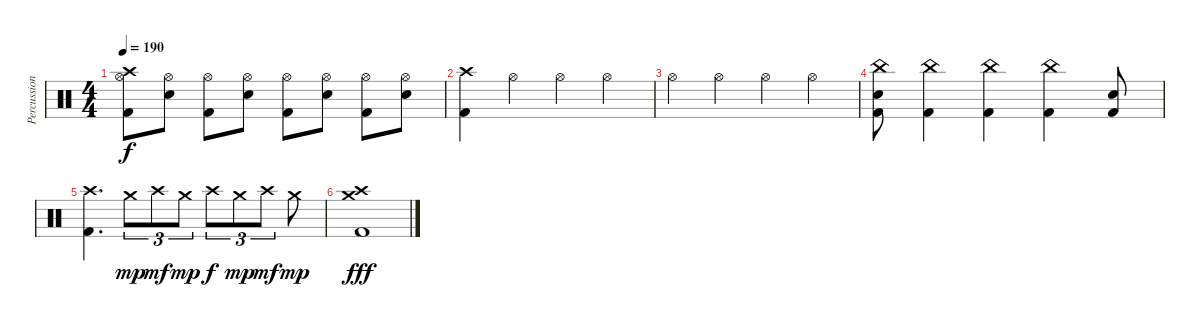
\track ("Percussion" "Percussion") {instrument percussion}
\staff {score}
\articulation defaults
\ts (4 4)
\tempo 190
\clef neutral
\ks c
("Crash high (hit)" "Hi-Hat (open)" "Kick (hit) 2").8{dy f} ("Hi-Hat (open)" "Snare (hit) 2").8 ("Hi-Hat (open)" "Kick (hit) 2").8 ("Hi-Hat (open)" "Snare (hit) 2").8 ("Hi-Hat (open)" "Kick (hit) 2").8 ("Hi-Hat (open)" "Snare (hit) 2").8 ("Hi-Hat (open)" "Kick (hit) 2").8 ("Hi-Hat (open)" "Snare (hit) 2").8 |
("Crash high (hit)" "Kick (hit) 2").4 "Hi-Hat (open)".4 "Hi-Hat (open)".4 "Hi-Hat (open)".4 |
"Hi-Hat (open)".4 "Hi-Hat (open)".4 "Hi-Hat (open)".4 "Hi-Hat (open)".4 |
("China (hit)" "Snare (hit) 2" "Kick (hit) 2").8 ("China (hit)" "Kick (hit) 2").4 ("China (hit)" "Kick (hit) 2").4 ("China (hit)" "Kick (hit) 2").4 ("Snare (hit) 2" "Kick (hit) 2").8 |
("Crash high (hit)" "Kick (hit) 2").4{d} "Crash medium (hit)".8{tu (3 2) dy mp} "Crash high (hit)".8{tu (3 2) dy mf} "Crash medium (hit)".8{tu (3 2) dy mp} "Crash high (hit)".8{tu (3 2) dy f} "Crash medium (hit)".8{tu (3 2) dy mp} "Crash high (hit)".8{tu (3 2) dy mf} "Crash medium (hit)".8{dy mp} |
("Crash high (hit)" "Crash medium (hit)" "Kick (hit) 2").1{dy fff}
